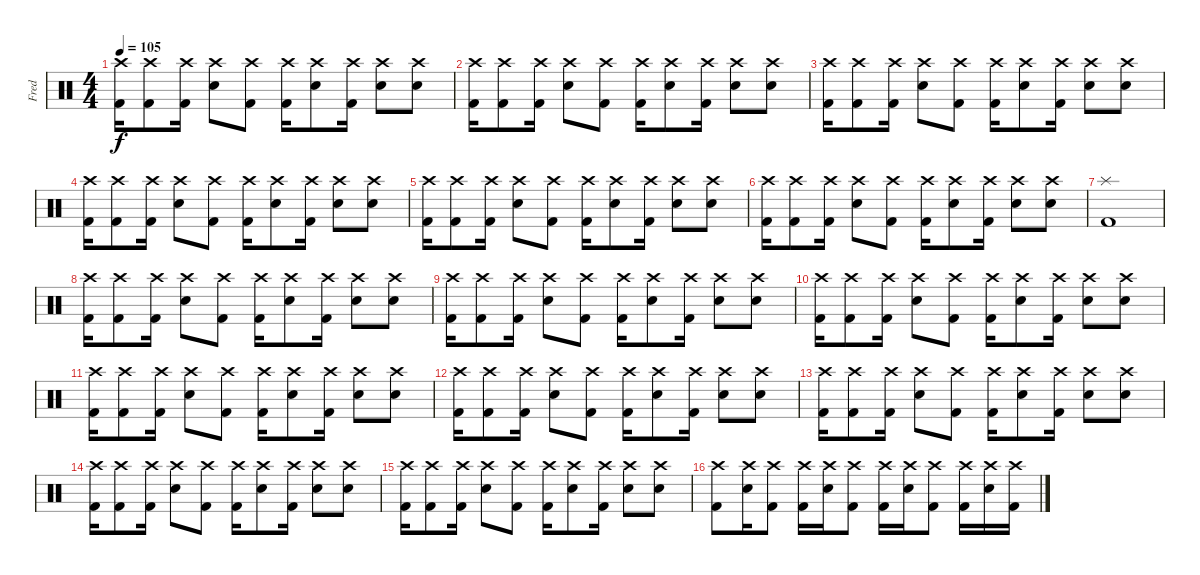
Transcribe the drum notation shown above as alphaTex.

\track ("Fred" "Fred") {instrument percussion}
\staff {score}
\articulation defaults
\ts (4 4)
\tempo 105
\clef neutral
\ks c
("Crash high (hit)" "Kick (hit) 2").16{dy f} ("Crash high (hit)" "Kick (hit) 2").8 ("Crash high (hit)" "Kick (hit) 2").16 ("Crash high (hit)" "Electric Snare (hit)").8 ("Crash high (hit)" "Kick (hit) 2").8 ("Crash high (hit)" "Kick (hit) 2").16 ("Crash high (hit)" "Electric Snare (hit)").8 ("Crash high (hit)" "Kick (hit) 2").16 ("Crash high (hit)" "Electric Snare (hit)").8 ("Crash high (hit)" "Electric Snare (hit)").8 |
("Crash high (hit)" "Kick (hit) 2").16 ("Crash high (hit)" "Kick (hit) 2").8 ("Crash high (hit)" "Kick (hit) 2").16 ("Crash high (hit)" "Electric Snare (hit)").8 ("Crash high (hit)" "Kick (hit) 2").8 ("Crash high (hit)" "Kick (hit) 2").16 ("Crash high (hit)" "Electric Snare (hit)").8 ("Crash high (hit)" "Kick (hit) 2").16 ("Crash high (hit)" "Electric Snare (hit)").8 ("Crash high (hit)" "Electric Snare (hit)").8 |
("Crash high (hit)" "Kick (hit) 2").16 ("Crash high (hit)" "Kick (hit) 2").8 ("Crash high (hit)" "Kick (hit) 2").16 ("Crash high (hit)" "Electric Snare (hit)").8 ("Crash high (hit)" "Kick (hit) 2").8 ("Crash high (hit)" "Kick (hit) 2").16 ("Crash high (hit)" "Electric Snare (hit)").8 ("Crash high (hit)" "Kick (hit) 2").16 ("Crash high (hit)" "Electric Snare (hit)").8 ("Crash high (hit)" "Electric Snare (hit)").8 |
("Crash high (hit)" "Kick (hit) 2").16 ("Crash high (hit)" "Kick (hit) 2").8 ("Crash high (hit)" "Kick (hit) 2").16 ("Crash high (hit)" "Electric Snare (hit)").8 ("Crash high (hit)" "Kick (hit) 2").8 ("Crash high (hit)" "Kick (hit) 2").16 ("Crash high (hit)" "Electric Snare (hit)").8 ("Crash high (hit)" "Kick (hit) 2").16 ("Crash high (hit)" "Electric Snare (hit)").8 ("Crash high (hit)" "Electric Snare (hit)").8 |
("Crash high (hit)" "Kick (hit) 2").16 ("Crash high (hit)" "Kick (hit) 2").8 ("Crash high (hit)" "Kick (hit) 2").16 ("Crash high (hit)" "Electric Snare (hit)").8 ("Crash high (hit)" "Kick (hit) 2").8 ("Crash high (hit)" "Kick (hit) 2").16 ("Crash high (hit)" "Electric Snare (hit)").8 ("Crash high (hit)" "Kick (hit) 2").16 ("Crash high (hit)" "Electric Snare (hit)").8 ("Crash high (hit)" "Electric Snare (hit)").8 |
("Crash high (hit)" "Kick (hit) 2").16 ("Crash high (hit)" "Kick (hit) 2").8 ("Crash high (hit)" "Kick (hit) 2").16 ("Crash high (hit)" "Electric Snare (hit)").8 ("Crash high (hit)" "Kick (hit) 2").8 ("Crash high (hit)" "Kick (hit) 2").16 ("Crash high (hit)" "Electric Snare (hit)").8 ("Crash high (hit)" "Kick (hit) 2").16 ("Crash high (hit)" "Electric Snare (hit)").8 ("Crash high (hit)" "Electric Snare (hit)").8 |
("Splash (hit)" "Kick (hit) 2").1 |
("Crash high (hit)" "Kick (hit) 2").16 ("Crash high (hit)" "Kick (hit) 2").8 ("Crash high (hit)" "Kick (hit) 2").16 ("Crash high (hit)" "Electric Snare (hit)").8 ("Crash high (hit)" "Kick (hit) 2").8 ("Crash high (hit)" "Kick (hit) 2").16 ("Crash high (hit)" "Electric Snare (hit)").8 ("Crash high (hit)" "Kick (hit) 2").16 ("Crash high (hit)" "Electric Snare (hit)").8 ("Crash high (hit)" "Electric Snare (hit)").8 |
("Crash high (hit)" "Kick (hit) 2").16 ("Crash high (hit)" "Kick (hit) 2").8 ("Crash high (hit)" "Kick (hit) 2").16 ("Crash high (hit)" "Electric Snare (hit)").8 ("Crash high (hit)" "Kick (hit) 2").8 ("Crash high (hit)" "Kick (hit) 2").16 ("Crash high (hit)" "Electric Snare (hit)").8 ("Crash high (hit)" "Kick (hit) 2").16 ("Crash high (hit)" "Electric Snare (hit)").8 ("Crash high (hit)" "Electric Snare (hit)").8 |
("Crash high (hit)" "Kick (hit) 2").16 ("Crash high (hit)" "Kick (hit) 2").8 ("Crash high (hit)" "Kick (hit) 2").16 ("Crash high (hit)" "Electric Snare (hit)").8 ("Crash high (hit)" "Kick (hit) 2").8 ("Crash high (hit)" "Kick (hit) 2").16 ("Crash high (hit)" "Electric Snare (hit)").8 ("Crash high (hit)" "Kick (hit) 2").16 ("Crash high (hit)" "Electric Snare (hit)").8 ("Crash high (hit)" "Electric Snare (hit)").8 |
("Crash high (hit)" "Kick (hit) 2").16 ("Crash high (hit)" "Kick (hit) 2").8 ("Crash high (hit)" "Kick (hit) 2").16 ("Crash high (hit)" "Electric Snare (hit)").8 ("Crash high (hit)" "Kick (hit) 2").8 ("Crash high (hit)" "Kick (hit) 2").16 ("Crash high (hit)" "Electric Snare (hit)").8 ("Crash high (hit)" "Kick (hit) 2").16 ("Crash high (hit)" "Electric Snare (hit)").8 ("Crash high (hit)" "Electric Snare (hit)").8 |
("Crash high (hit)" "Kick (hit) 2").16 ("Crash high (hit)" "Kick (hit) 2").8 ("Crash high (hit)" "Kick (hit) 2").16 ("Crash high (hit)" "Electric Snare (hit)").8 ("Crash high (hit)" "Kick (hit) 2").8 ("Crash high (hit)" "Kick (hit) 2").16 ("Crash high (hit)" "Electric Snare (hit)").8 ("Crash high (hit)" "Kick (hit) 2").16 ("Crash high (hit)" "Electric Snare (hit)").8 ("Crash high (hit)" "Electric Snare (hit)").8 |
("Crash high (hit)" "Kick (hit) 2").16 ("Crash high (hit)" "Kick (hit) 2").8 ("Crash high (hit)" "Kick (hit) 2").16 ("Crash high (hit)" "Electric Snare (hit)").8 ("Crash high (hit)" "Kick (hit) 2").8 ("Crash high (hit)" "Kick (hit) 2").16 ("Crash high (hit)" "Electric Snare (hit)").8 ("Crash high (hit)" "Kick (hit) 2").16 ("Crash high (hit)" "Electric Snare (hit)").8 ("Crash high (hit)" "Electric Snare (hit)").8 |
("Crash high (hit)" "Kick (hit) 2").16 ("Crash high (hit)" "Kick (hit) 2").8 ("Crash high (hit)" "Kick (hit) 2").16 ("Crash high (hit)" "Electric Snare (hit)").8 ("Crash high (hit)" "Kick (hit) 2").8 ("Crash high (hit)" "Kick (hit) 2").16 ("Crash high (hit)" "Electric Snare (hit)").8 ("Crash high (hit)" "Kick (hit) 2").16 ("Crash high (hit)" "Electric Snare (hit)").8 ("Crash high (hit)" "Electric Snare (hit)").8 |
("Crash high (hit)" "Kick (hit) 2").16 ("Crash high (hit)" "Kick (hit) 2").8 ("Crash high (hit)" "Kick (hit) 2").16 ("Crash high (hit)" "Electric Snare (hit)").8 ("Crash high (hit)" "Kick (hit) 2").8 ("Crash high (hit)" "Kick (hit) 2").16 ("Crash high (hit)" "Electric Snare (hit)").8 ("Crash high (hit)" "Kick (hit) 2").16 ("Crash high (hit)" "Electric Snare (hit)").8 ("Crash high (hit)" "Electric Snare (hit)").8 |
("Crash high (hit)" "Kick (hit) 2").8 ("Crash high (hit)" "Electric Snare (hit)").16 ("Crash high (hit)" "Kick (hit) 2").8 ("Crash high (hit)" "Kick (hit) 2").16 ("Crash high (hit)" "Electric Snare (hit)").16 ("Crash high (hit)" "Kick (hit) 2").8 ("Crash high (hit)" "Kick (hit) 2").16 ("Crash high (hit)" "Electric Snare (hit)").16 ("Crash high (hit)" "Kick (hit) 2").8 ("Crash high (hit)" "Kick (hit) 2").16 ("Crash high (hit)" "Electric Snare (hit)").16 ("Crash high (hit)" "Kick (hit) 2").16
